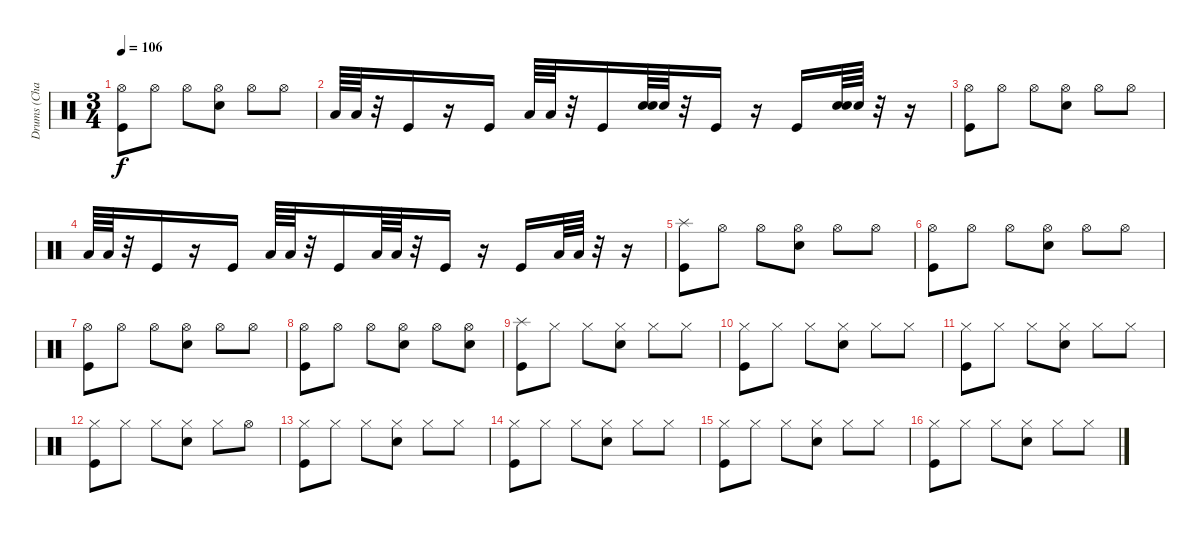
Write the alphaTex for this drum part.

\track ("Drums (Chad?)" "Drums (Cha") {instrument percussion}
\staff {score}
\articulation defaults
\ts (3 4)
\tempo 106
\clef neutral
\ks c
("Hi-Hat (open)" "Kick (hit)").8{dy f} "Hi-Hat (open)".8 "Hi-Hat (open)".8 ("Hi-Hat (open)" "Snare (hit) 2").8 "Hi-Hat (open)".8 "Hi-Hat (open)".8 |
"Low Tom (hit)".64 "Low Tom (hit)".64 r.32 "Kick (hit)".16 r.16 "Kick (hit)".16 "Low Tom (hit)".64 "Low Tom (hit)".64 r.32 "Kick (hit)".16 ("Snare (hit) 2" "Snare (hit) 2").64 "Snare (hit) 2".64 r.32 "Kick (hit)".16 r.16 "Kick (hit)".16 ("Snare (hit) 2" "Snare (hit) 2").64 "Snare (hit) 2".64 r.32 r.16 |
("Hi-Hat (open)" "Kick (hit)").8 "Hi-Hat (open)".8 "Hi-Hat (open)".8 ("Hi-Hat (open)" "Snare (hit) 2").8 "Hi-Hat (open)".8 "Hi-Hat (open)".8 |
"Low Tom (hit)".64 "Low Tom (hit)".64 r.32 "Kick (hit)".16 r.16 "Kick (hit)".16 "Low Tom (hit)".64 "Low Tom (hit)".64 r.32 "Kick (hit)".16 "Low Tom (hit)".64 "Low Tom (hit)".64 r.32 "Kick (hit)".16 r.16 "Kick (hit)".16 "Low Tom (hit)".64 "Low Tom (hit)".64 r.32 r.16 |
("Splash (hit)" "Kick (hit)").8 "Hi-Hat (open)".8 "Hi-Hat (open)".8 ("Hi-Hat (open)" "Snare (hit) 2").8 "Hi-Hat (open)".8 "Hi-Hat (open)".8 |
("Hi-Hat (open)" "Kick (hit)").8 "Hi-Hat (open)".8 "Hi-Hat (open)".8 ("Hi-Hat (open)" "Snare (hit) 2").8 "Hi-Hat (open)".8 "Hi-Hat (open)".8 |
("Hi-Hat (open)" "Kick (hit)").8 "Hi-Hat (open)".8 "Hi-Hat (open)".8 ("Hi-Hat (open)" "Snare (hit) 2").8 "Hi-Hat (open)".8 "Hi-Hat (open)".8 |
("Hi-Hat (open)" "Kick (hit)").8 "Hi-Hat (open)".8 "Hi-Hat (open)".8 ("Hi-Hat (open)" "Snare (hit) 2").8 "Hi-Hat (open)".8 ("Hi-Hat (open)" "Snare (hit) 2").8 |
("Splash (hit)" "Kick (hit)").8 "Hi-Hat (closed)".8 "Hi-Hat (closed)".8 ("Hi-Hat (closed)" "Snare (hit) 2").8 "Hi-Hat (closed)".8 "Hi-Hat (closed)".8 |
("Hi-Hat (closed)" "Kick (hit)").8 "Hi-Hat (closed)".8 "Hi-Hat (closed)".8 ("Hi-Hat (closed)" "Snare (hit) 2").8 "Hi-Hat (closed)".8 "Hi-Hat (closed)".8 |
("Hi-Hat (closed)" "Kick (hit)").8 "Hi-Hat (closed)".8 "Hi-Hat (closed)".8 ("Hi-Hat (closed)" "Snare (hit) 2").8 "Hi-Hat (closed)".8 "Hi-Hat (closed)".8 |
("Hi-Hat (closed)" "Kick (hit)").8 "Hi-Hat (closed)".8 "Hi-Hat (closed)".8 ("Hi-Hat (closed)" "Snare (hit) 2").8 "Hi-Hat (closed)".8 "Hi-Hat (open)".8 |
("Hi-Hat (closed)" "Kick (hit)").8 "Hi-Hat (closed)".8 "Hi-Hat (closed)".8 ("Hi-Hat (closed)" "Snare (hit) 2").8 "Hi-Hat (closed)".8 "Hi-Hat (closed)".8 |
("Hi-Hat (closed)" "Kick (hit)").8 "Hi-Hat (closed)".8 "Hi-Hat (closed)".8 ("Hi-Hat (closed)" "Snare (hit) 2").8 "Hi-Hat (closed)".8 "Hi-Hat (closed)".8 |
("Hi-Hat (closed)" "Kick (hit)").8 "Hi-Hat (closed)".8 "Hi-Hat (closed)".8 ("Hi-Hat (closed)" "Snare (hit) 2").8 "Hi-Hat (closed)".8 "Hi-Hat (closed)".8 |
("Hi-Hat (closed)" "Kick (hit)").8 "Hi-Hat (closed)".8 "Hi-Hat (closed)".8 ("Hi-Hat (closed)" "Snare (hit) 2").8 "Hi-Hat (closed)".8 "Hi-Hat (closed)".8
